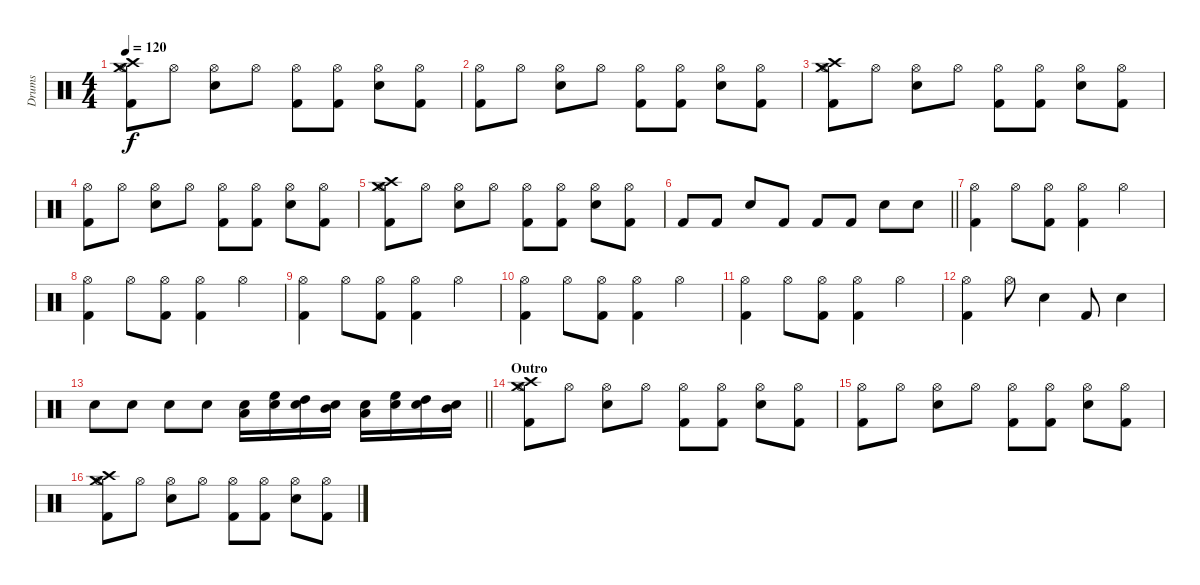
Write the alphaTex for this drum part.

\track ("Drums" "Drums") {instrument percussion}
\staff {score}
\articulation defaults
\ts (4 4)
\tempo 120
\clef neutral
\ks c
("Crash high (hit)" "Crash medium (hit)" "Kick (hit) 2" "Hi-Hat (open)").8{dy f} "Hi-Hat (open)".8 ("Snare (hit) 2" "Hi-Hat (open)").8 "Hi-Hat (open)".8 ("Kick (hit) 2" "Hi-Hat (open)").8 ("Kick (hit) 2" "Hi-Hat (open)").8 ("Snare (hit) 2" "Hi-Hat (open)").8 ("Kick (hit) 2" "Hi-Hat (open)").8 |
("Kick (hit) 2" "Hi-Hat (open)").8 "Hi-Hat (open)".8 ("Snare (hit) 2" "Hi-Hat (open)").8 "Hi-Hat (open)".8 ("Kick (hit) 2" "Hi-Hat (open)").8 ("Kick (hit) 2" "Hi-Hat (open)").8 ("Snare (hit) 2" "Hi-Hat (open)").8 ("Kick (hit) 2" "Hi-Hat (open)").8 |
("Crash high (hit)" "Crash medium (hit)" "Kick (hit) 2" "Hi-Hat (open)").8 "Hi-Hat (open)".8 ("Snare (hit) 2" "Hi-Hat (open)").8 "Hi-Hat (open)".8 ("Kick (hit) 2" "Hi-Hat (open)").8 ("Kick (hit) 2" "Hi-Hat (open)").8 ("Snare (hit) 2" "Hi-Hat (open)").8 ("Kick (hit) 2" "Hi-Hat (open)").8 |
("Kick (hit) 2" "Hi-Hat (open)").8 "Hi-Hat (open)".8 ("Snare (hit) 2" "Hi-Hat (open)").8 "Hi-Hat (open)".8 ("Kick (hit) 2" "Hi-Hat (open)").8 ("Kick (hit) 2" "Hi-Hat (open)").8 ("Snare (hit) 2" "Hi-Hat (open)").8 ("Kick (hit) 2" "Hi-Hat (open)").8 |
("Crash high (hit)" "Crash medium (hit)" "Kick (hit) 2" "Hi-Hat (open)").8 "Hi-Hat (open)".8 ("Snare (hit) 2" "Hi-Hat (open)").8 "Hi-Hat (open)".8 ("Kick (hit) 2" "Hi-Hat (open)").8 ("Kick (hit) 2" "Hi-Hat (open)").8 ("Snare (hit) 2" "Hi-Hat (open)").8 ("Kick (hit) 2" "Hi-Hat (open)").8 |
\barLineRight lightlight "Kick (hit) 2".8 "Kick (hit) 2".8 "Snare (hit) 2".8 "Kick (hit) 2".8 "Kick (hit) 2".8 "Kick (hit) 2".8 "Snare (hit) 2".8 "Snare (hit) 2".8
|
("Kick (hit) 2" "Hi-Hat (open)").4 "Hi-Hat (open)".8 ("Kick (hit) 2" "Hi-Hat (open)").8 ("Kick (hit) 2" "Hi-Hat (open)").4 "Hi-Hat (open)".4 |
("Kick (hit) 2" "Hi-Hat (open)").4 "Hi-Hat (open)".8 ("Kick (hit) 2" "Hi-Hat (open)").8 ("Kick (hit) 2" "Hi-Hat (open)").4 "Hi-Hat (open)".4 |
("Kick (hit) 2" "Hi-Hat (open)").4 "Hi-Hat (open)".8 ("Kick (hit) 2" "Hi-Hat (open)").8 ("Kick (hit) 2" "Hi-Hat (open)").4 "Hi-Hat (open)".4 |
("Kick (hit) 2" "Hi-Hat (open)").4 "Hi-Hat (open)".8 ("Kick (hit) 2" "Hi-Hat (open)").8 ("Kick (hit) 2" "Hi-Hat (open)").4 "Hi-Hat (open)".4 |
("Kick (hit) 2" "Hi-Hat (open)").4 "Hi-Hat (open)".8 ("Kick (hit) 2" "Hi-Hat (open)").8 ("Kick (hit) 2" "Hi-Hat (open)").4 "Hi-Hat (open)".4 |
("Kick (hit) 2" "Hi-Hat (open)").4 "Hi-Hat (open)".8 "Snare (hit) 2".4 "Kick (hit) 2".8 "Snare (hit) 2".4 |
\barLineRight lightlight "Snare (hit) 2".8 "Snare (hit) 2".8 "Snare (hit) 2".8 "Snare (hit) 2".8
("Low Tom (hit)" "Snare (hit) 2").16 ("High Floor Tom (hit)" "Snare (hit) 2").16 ("High Tom (hit)" "Snare (hit) 2").16 ("Mid Tom (hit)" "Snare (hit) 2").16 ("Low Tom (hit)" "Snare (hit) 2").16 ("High Floor Tom (hit)" "Snare (hit) 2").16 ("High Tom (hit)" "Snare (hit) 2").16 ("Mid Tom (hit)" "Snare (hit) 2").16 |
\section ("" "Outro")
("Crash high (hit)" "Crash medium (hit)" "Kick (hit) 2" "Hi-Hat (open)").8 "Hi-Hat (open)".8 ("Snare (hit) 2" "Hi-Hat (open)").8 "Hi-Hat (open)".8 ("Kick (hit) 2" "Hi-Hat (open)").8 ("Kick (hit) 2" "Hi-Hat (open)").8 ("Snare (hit) 2" "Hi-Hat (open)").8 ("Kick (hit) 2" "Hi-Hat (open)").8 |
("Kick (hit) 2" "Hi-Hat (open)").8 "Hi-Hat (open)".8 ("Snare (hit) 2" "Hi-Hat (open)").8 "Hi-Hat (open)".8 ("Kick (hit) 2" "Hi-Hat (open)").8 ("Kick (hit) 2" "Hi-Hat (open)").8 ("Snare (hit) 2" "Hi-Hat (open)").8 ("Kick (hit) 2" "Hi-Hat (open)").8 |
("Crash high (hit)" "Crash medium (hit)" "Kick (hit) 2" "Hi-Hat (open)").8 "Hi-Hat (open)".8 ("Snare (hit) 2" "Hi-Hat (open)").8 "Hi-Hat (open)".8 ("Kick (hit) 2" "Hi-Hat (open)").8 ("Kick (hit) 2" "Hi-Hat (open)").8 ("Snare (hit) 2" "Hi-Hat (open)").8 ("Kick (hit) 2" "Hi-Hat (open)").8
